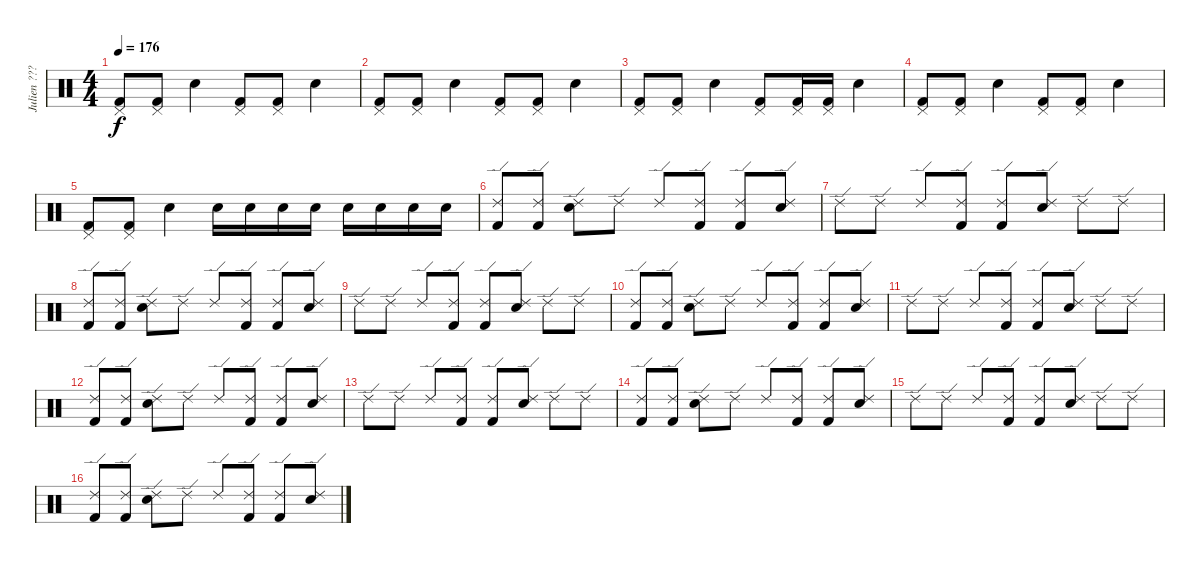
\track ("Julien ??? (Drum)" "Julien ???") {instrument percussion}
\staff {score}
\articulation defaults
\ts (4 4)
\tempo 176
\clef neutral
\ks c
("Pedal Hi-Hat (hit)" "Kick (hit) 2").8{dy f} ("Pedal Hi-Hat (hit)" "Kick (hit) 2").8 "Electric Snare (hit)".4 ("Pedal Hi-Hat (hit)" "Kick (hit) 2").8 ("Pedal Hi-Hat (hit)" "Kick (hit) 2").8 "Electric Snare (hit)".4 |
("Pedal Hi-Hat (hit)" "Kick (hit) 2").8 ("Pedal Hi-Hat (hit)" "Kick (hit) 2").8 "Electric Snare (hit)".4 ("Pedal Hi-Hat (hit)" "Kick (hit) 2").8 ("Pedal Hi-Hat (hit)" "Kick (hit) 2").8 "Electric Snare (hit)".4 |
("Pedal Hi-Hat (hit)" "Kick (hit) 2").8 ("Pedal Hi-Hat (hit)" "Kick (hit) 2").8 "Electric Snare (hit)".4 ("Pedal Hi-Hat (hit)" "Kick (hit) 2").8 ("Pedal Hi-Hat (hit)" "Kick (hit) 2").16 ("Pedal Hi-Hat (hit)" "Kick (hit) 2").16 "Electric Snare (hit)".4 |
("Pedal Hi-Hat (hit)" "Kick (hit) 2").8 ("Pedal Hi-Hat (hit)" "Kick (hit) 2").8 "Electric Snare (hit)".4 ("Pedal Hi-Hat (hit)" "Kick (hit) 2").8 ("Pedal Hi-Hat (hit)" "Kick (hit) 2").8 "Electric Snare (hit)".4 |
("Pedal Hi-Hat (hit)" "Kick (hit) 2").8 ("Pedal Hi-Hat (hit)" "Kick (hit) 2").8 "Electric Snare (hit)".4 "Electric Snare (hit)".16 "Electric Snare (hit)".16 "Electric Snare (hit)".16 "Electric Snare (hit)".16 "Electric Snare (hit)".16 "Electric Snare (hit)".16 "Electric Snare (hit)".16 "Electric Snare (hit)".16 |
("Kick (hit) 2" "Ride (edge) 2").8 ("Kick (hit) 2" "Ride (edge) 2").8 ("Electric Snare (hit)" "Ride (edge) 2").8 "Ride (edge) 2".8 "Ride (edge) 2".8 ("Kick (hit) 2" "Ride (edge) 2").8 ("Kick (hit) 2" "Ride (edge) 2").8 ("Electric Snare (hit)" "Ride (edge) 2").8 |
"Ride (edge) 2".8 "Ride (edge) 2".8 "Ride (edge) 2".8 ("Kick (hit) 2" "Ride (edge) 2").8 ("Kick (hit) 2" "Ride (edge) 2").8 ("Electric Snare (hit)" "Ride (edge) 2").8 "Ride (edge) 2".8 "Ride (edge) 2".8 |
("Kick (hit) 2" "Ride (edge) 2").8 ("Kick (hit) 2" "Ride (edge) 2").8 ("Electric Snare (hit)" "Ride (edge) 2").8 "Ride (edge) 2".8 "Ride (edge) 2".8 ("Kick (hit) 2" "Ride (edge) 2").8 ("Kick (hit) 2" "Ride (edge) 2").8 ("Electric Snare (hit)" "Ride (edge) 2").8 |
"Ride (edge) 2".8 "Ride (edge) 2".8 "Ride (edge) 2".8 ("Kick (hit) 2" "Ride (edge) 2").8 ("Kick (hit) 2" "Ride (edge) 2").8 ("Electric Snare (hit)" "Ride (edge) 2").8 "Ride (edge) 2".8 "Ride (edge) 2".8 |
("Kick (hit) 2" "Ride (edge) 2").8 ("Kick (hit) 2" "Ride (edge) 2").8 ("Electric Snare (hit)" "Ride (edge) 2").8 "Ride (edge) 2".8 "Ride (edge) 2".8 ("Kick (hit) 2" "Ride (edge) 2").8 ("Kick (hit) 2" "Ride (edge) 2").8 ("Electric Snare (hit)" "Ride (edge) 2").8 |
"Ride (edge) 2".8 "Ride (edge) 2".8 "Ride (edge) 2".8 ("Kick (hit) 2" "Ride (edge) 2").8 ("Kick (hit) 2" "Ride (edge) 2").8 ("Electric Snare (hit)" "Ride (edge) 2").8 "Ride (edge) 2".8 "Ride (edge) 2".8 |
("Kick (hit) 2" "Ride (edge) 2").8 ("Kick (hit) 2" "Ride (edge) 2").8 ("Electric Snare (hit)" "Ride (edge) 2").8 "Ride (edge) 2".8 "Ride (edge) 2".8 ("Kick (hit) 2" "Ride (edge) 2").8 ("Kick (hit) 2" "Ride (edge) 2").8 ("Electric Snare (hit)" "Ride (edge) 2").8 |
"Ride (edge) 2".8 "Ride (edge) 2".8 "Ride (edge) 2".8 ("Kick (hit) 2" "Ride (edge) 2").8 ("Kick (hit) 2" "Ride (edge) 2").8 ("Electric Snare (hit)" "Ride (edge) 2").8 "Ride (edge) 2".8 "Ride (edge) 2".8 |
("Kick (hit) 2" "Ride (edge) 2").8 ("Kick (hit) 2" "Ride (edge) 2").8 ("Electric Snare (hit)" "Ride (edge) 2").8 "Ride (edge) 2".8 "Ride (edge) 2".8 ("Kick (hit) 2" "Ride (edge) 2").8 ("Kick (hit) 2" "Ride (edge) 2").8 ("Electric Snare (hit)" "Ride (edge) 2").8 |
"Ride (edge) 2".8 "Ride (edge) 2".8 "Ride (edge) 2".8 ("Kick (hit) 2" "Ride (edge) 2").8 ("Kick (hit) 2" "Ride (edge) 2").8 ("Electric Snare (hit)" "Ride (edge) 2").8 "Ride (edge) 2".8 "Ride (edge) 2".8 |
("Kick (hit) 2" "Ride (edge) 2").8 ("Kick (hit) 2" "Ride (edge) 2").8 ("Electric Snare (hit)" "Ride (edge) 2").8 "Ride (edge) 2".8 "Ride (edge) 2".8 ("Kick (hit) 2" "Ride (edge) 2").8 ("Kick (hit) 2" "Ride (edge) 2").8 ("Electric Snare (hit)" "Ride (edge) 2").8
